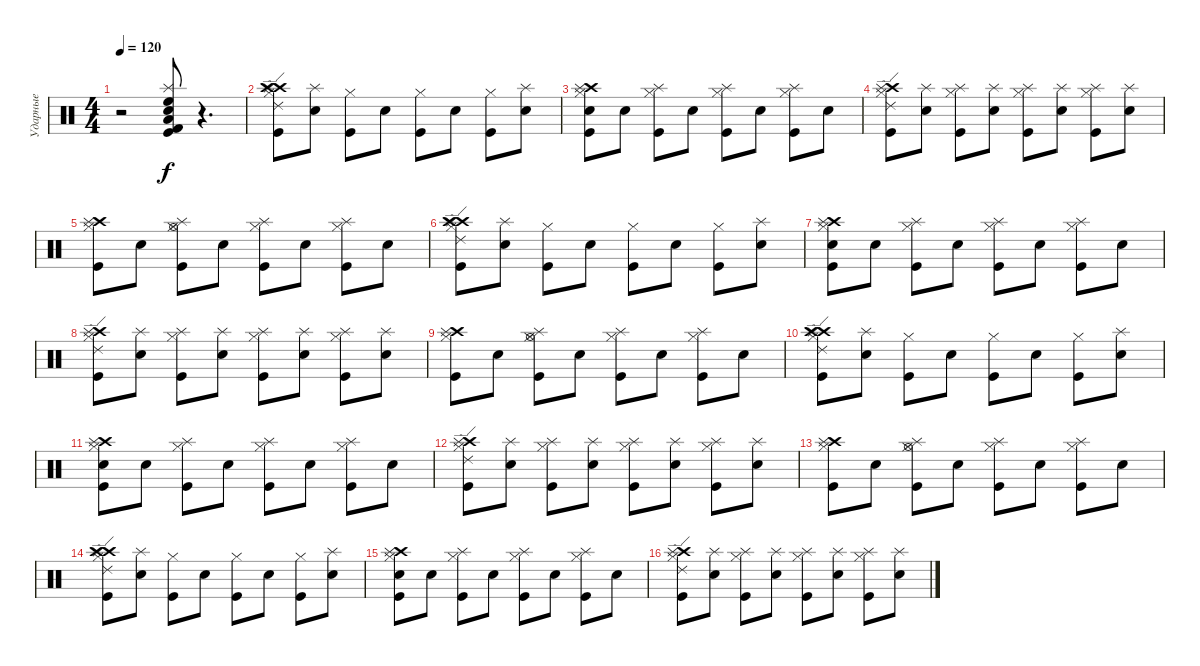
\track ("Ударные" "Ударные") {instrument percussion}
\staff {score}
\articulation defaults
\ts (4 4)
\tempo 120
\clef neutral
\ks c
r.2{dy f} ("Snare (hit) 2" "Low Tom (hit)" "High Floor Tom (hit)" "Splash (hit)" "Kick (hit)" "Kick (hit) 2").8 r.4{d} |
("Crash high (hit)" "Ride (edge) 2" "Hi-Hat (closed)" "Crash high (hit)" "Splash (hit)" "Kick (hit)").8 ("Electric Snare (hit)" "Splash (hit)").8 ("Hi-Hat (closed)" "Kick (hit)").8 "Electric Snare (hit)".8 ("Hi-Hat (closed)" "Kick (hit)").8 "Electric Snare (hit)".8 ("Hi-Hat (closed)" "Kick (hit)").8 ("Electric Snare (hit)" "Splash (hit)").8 |
("Crash high (hit)" "Hi-Hat (closed)" "Snare (hit)" "Splash (hit)" "Kick (hit)").8 "Electric Snare (hit)".8 ("Hi-Hat (closed)" "Splash (hit)" "Kick (hit)").8 "Electric Snare (hit)".8 ("Hi-Hat (closed)" "Splash (hit)" "Kick (hit)").8 "Electric Snare (hit)".8 ("Hi-Hat (closed)" "Splash (hit)" "Kick (hit)").8 "Electric Snare (hit)".8 |
("Crash high (hit)" "Ride (edge) 2" "Hi-Hat (closed)" "Splash (hit)" "Kick (hit)").8 ("Electric Snare (hit)" "Splash (hit)").8 ("Hi-Hat (closed)" "Splash (hit)" "Kick (hit)").8 ("Electric Snare (hit)" "Splash (hit)").8 ("Hi-Hat (closed)" "Splash (hit)" "Kick (hit)").8 ("Electric Snare (hit)" "Splash (hit)").8 ("Hi-Hat (closed)" "Splash (hit)" "Kick (hit)").8 ("Electric Snare (hit)" "Splash (hit)").8 |
("Crash high (hit)" "Hi-Hat (closed)" "Splash (hit)" "Kick (hit)").8 "Electric Snare (hit)".8 ("Hi-Hat (open)" "Hi-Hat (closed)" "Splash (hit)" "Kick (hit)").8 "Electric Snare (hit)".8 ("Hi-Hat (closed)" "Splash (hit)" "Kick (hit)").8 "Electric Snare (hit)".8 ("Hi-Hat (closed)" "Splash (hit)" "Kick (hit)").8 "Electric Snare (hit)".8 |
("Crash high (hit)" "Ride (edge) 2" "Hi-Hat (closed)" "Crash high (hit)" "Splash (hit)" "Kick (hit)").8 ("Electric Snare (hit)" "Splash (hit)").8 ("Hi-Hat (closed)" "Kick (hit)").8 "Electric Snare (hit)".8 ("Hi-Hat (closed)" "Kick (hit)").8 "Electric Snare (hit)".8 ("Hi-Hat (closed)" "Kick (hit)").8 ("Electric Snare (hit)" "Splash (hit)").8 |
("Crash high (hit)" "Hi-Hat (closed)" "Snare (hit)" "Splash (hit)" "Kick (hit)").8 "Electric Snare (hit)".8 ("Hi-Hat (closed)" "Splash (hit)" "Kick (hit)").8 "Electric Snare (hit)".8 ("Hi-Hat (closed)" "Splash (hit)" "Kick (hit)").8 "Electric Snare (hit)".8 ("Hi-Hat (closed)" "Splash (hit)" "Kick (hit)").8 "Electric Snare (hit)".8 |
("Crash high (hit)" "Ride (edge) 2" "Hi-Hat (closed)" "Splash (hit)" "Kick (hit)").8 ("Electric Snare (hit)" "Splash (hit)").8 ("Hi-Hat (closed)" "Splash (hit)" "Kick (hit)").8 ("Electric Snare (hit)" "Splash (hit)").8 ("Hi-Hat (closed)" "Splash (hit)" "Kick (hit)").8 ("Electric Snare (hit)" "Splash (hit)").8 ("Hi-Hat (closed)" "Splash (hit)" "Kick (hit)").8 ("Electric Snare (hit)" "Splash (hit)").8 |
("Crash high (hit)" "Hi-Hat (closed)" "Splash (hit)" "Kick (hit)").8 "Electric Snare (hit)".8 ("Hi-Hat (open)" "Hi-Hat (closed)" "Splash (hit)" "Kick (hit)").8 "Electric Snare (hit)".8 ("Hi-Hat (closed)" "Splash (hit)" "Kick (hit)").8 "Electric Snare (hit)".8 ("Hi-Hat (closed)" "Splash (hit)" "Kick (hit)").8 "Electric Snare (hit)".8 |
("Crash high (hit)" "Ride (edge) 2" "Hi-Hat (closed)" "Crash high (hit)" "Splash (hit)" "Kick (hit)").8 ("Electric Snare (hit)" "Splash (hit)").8 ("Hi-Hat (closed)" "Kick (hit)").8 "Electric Snare (hit)".8 ("Hi-Hat (closed)" "Kick (hit)").8 "Electric Snare (hit)".8 ("Hi-Hat (closed)" "Kick (hit)").8 ("Electric Snare (hit)" "Splash (hit)").8 |
("Crash high (hit)" "Hi-Hat (closed)" "Snare (hit)" "Splash (hit)" "Kick (hit)").8 "Electric Snare (hit)".8 ("Hi-Hat (closed)" "Splash (hit)" "Kick (hit)").8 "Electric Snare (hit)".8 ("Hi-Hat (closed)" "Splash (hit)" "Kick (hit)").8 "Electric Snare (hit)".8 ("Hi-Hat (closed)" "Splash (hit)" "Kick (hit)").8 "Electric Snare (hit)".8 |
("Crash high (hit)" "Ride (edge) 2" "Hi-Hat (closed)" "Splash (hit)" "Kick (hit)").8 ("Electric Snare (hit)" "Splash (hit)").8 ("Hi-Hat (closed)" "Splash (hit)" "Kick (hit)").8 ("Electric Snare (hit)" "Splash (hit)").8 ("Hi-Hat (closed)" "Splash (hit)" "Kick (hit)").8 ("Electric Snare (hit)" "Splash (hit)").8 ("Hi-Hat (closed)" "Splash (hit)" "Kick (hit)").8 ("Electric Snare (hit)" "Splash (hit)").8 |
("Crash high (hit)" "Hi-Hat (closed)" "Splash (hit)" "Kick (hit)").8 "Electric Snare (hit)".8 ("Hi-Hat (open)" "Hi-Hat (closed)" "Splash (hit)" "Kick (hit)").8 "Electric Snare (hit)".8 ("Hi-Hat (closed)" "Splash (hit)" "Kick (hit)").8 "Electric Snare (hit)".8 ("Hi-Hat (closed)" "Splash (hit)" "Kick (hit)").8 "Electric Snare (hit)".8 |
("Crash high (hit)" "Ride (edge) 2" "Hi-Hat (closed)" "Crash high (hit)" "Splash (hit)" "Kick (hit)").8 ("Electric Snare (hit)" "Splash (hit)").8 ("Hi-Hat (closed)" "Kick (hit)").8 "Electric Snare (hit)".8 ("Hi-Hat (closed)" "Kick (hit)").8 "Electric Snare (hit)".8 ("Hi-Hat (closed)" "Kick (hit)").8 ("Electric Snare (hit)" "Splash (hit)").8 |
("Crash high (hit)" "Hi-Hat (closed)" "Snare (hit)" "Splash (hit)" "Kick (hit)").8 "Electric Snare (hit)".8 ("Hi-Hat (closed)" "Splash (hit)" "Kick (hit)").8 "Electric Snare (hit)".8 ("Hi-Hat (closed)" "Splash (hit)" "Kick (hit)").8 "Electric Snare (hit)".8 ("Hi-Hat (closed)" "Splash (hit)" "Kick (hit)").8 "Electric Snare (hit)".8 |
("Crash high (hit)" "Ride (edge) 2" "Hi-Hat (closed)" "Splash (hit)" "Kick (hit)").8 ("Electric Snare (hit)" "Splash (hit)").8 ("Hi-Hat (closed)" "Splash (hit)" "Kick (hit)").8 ("Electric Snare (hit)" "Splash (hit)").8 ("Hi-Hat (closed)" "Splash (hit)" "Kick (hit)").8 ("Electric Snare (hit)" "Splash (hit)").8 ("Hi-Hat (closed)" "Splash (hit)" "Kick (hit)").8 ("Electric Snare (hit)" "Splash (hit)").8
